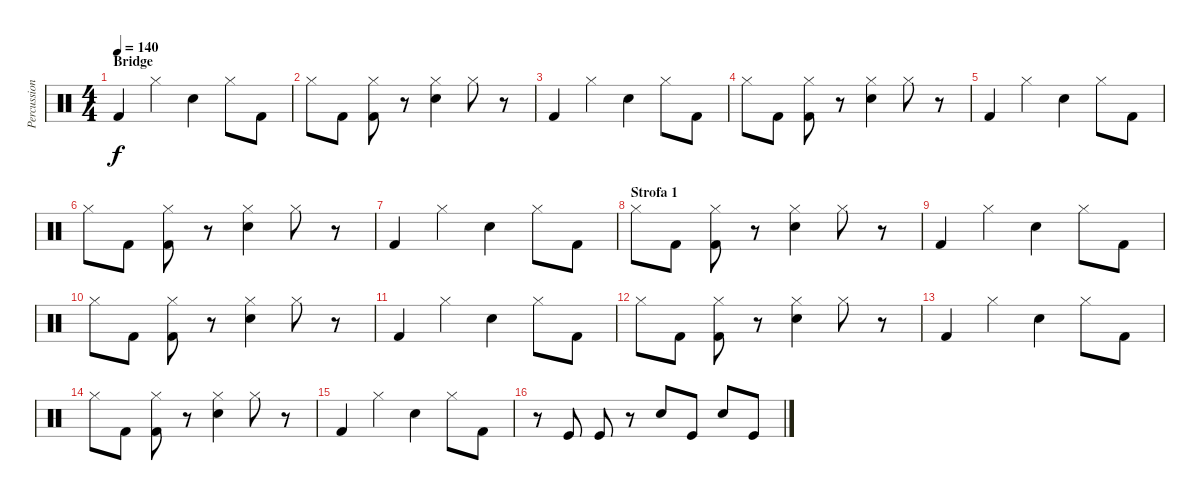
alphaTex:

\track ("Percussion" "Percussion") {instrument percussion}
\staff {score}
\articulation defaults
\ts (4 4)
\section ("" "Bridge")
\tempo 140
\clef neutral
\ks c "Kick (hit) 2".4{dy f} "Hi-Hat (closed)".4 "Snare (hit) 2".4 "Hi-Hat (closed)".8 "Kick (hit) 2".8
|
"Hi-Hat (closed)".8 "Kick (hit) 2".8 ("Kick (hit) 2" "Hi-Hat (closed)").8 r.8 ("Snare (hit) 2" "Hi-Hat (closed)").4 "Hi-Hat (closed)".8 r.8 |
"Kick (hit) 2".4 "Hi-Hat (closed)".4 "Snare (hit) 2".4 "Hi-Hat (closed)".8 "Kick (hit) 2".8 |
"Hi-Hat (closed)".8 "Kick (hit) 2".8 ("Kick (hit) 2" "Hi-Hat (closed)").8 r.8 ("Snare (hit) 2" "Hi-Hat (closed)").4 "Hi-Hat (closed)".8 r.8 |
"Kick (hit) 2".4 "Hi-Hat (closed)".4 "Snare (hit) 2".4 "Hi-Hat (closed)".8 "Kick (hit) 2".8 |
"Hi-Hat (closed)".8 "Kick (hit) 2".8 ("Kick (hit) 2" "Hi-Hat (closed)").8 r.8 ("Snare (hit) 2" "Hi-Hat (closed)").4 "Hi-Hat (closed)".8 r.8 |
"Kick (hit) 2".4 "Hi-Hat (closed)".4 "Snare (hit) 2".4 "Hi-Hat (closed)".8 "Kick (hit) 2".8 |
\section ("" "Strofa 1")
"Hi-Hat (closed)".8 "Kick (hit) 2".8 ("Kick (hit) 2" "Hi-Hat (closed)").8 r.8 ("Snare (hit) 2" "Hi-Hat (closed)").4 "Hi-Hat (closed)".8 r.8 |
"Kick (hit) 2".4 "Hi-Hat (closed)".4 "Snare (hit) 2".4 "Hi-Hat (closed)".8 "Kick (hit) 2".8 |
"Hi-Hat (closed)".8 "Kick (hit) 2".8 ("Kick (hit) 2" "Hi-Hat (closed)").8 r.8 ("Snare (hit) 2" "Hi-Hat (closed)").4 "Hi-Hat (closed)".8 r.8 |
"Kick (hit) 2".4 "Hi-Hat (closed)".4 "Snare (hit) 2".4 "Hi-Hat (closed)".8 "Kick (hit) 2".8 |
"Hi-Hat (closed)".8 "Kick (hit) 2".8 ("Kick (hit) 2" "Hi-Hat (closed)").8 r.8 ("Snare (hit) 2" "Hi-Hat (closed)").4 "Hi-Hat (closed)".8 r.8 |
"Kick (hit) 2".4 "Hi-Hat (closed)".4 "Snare (hit) 2".4 "Hi-Hat (closed)".8 "Kick (hit) 2".8 |
"Hi-Hat (closed)".8 "Kick (hit) 2".8 ("Kick (hit) 2" "Hi-Hat (closed)").8 r.8 ("Snare (hit) 2" "Hi-Hat (closed)").4 "Hi-Hat (closed)".8 r.8 |
"Kick (hit) 2".4 "Hi-Hat (closed)".4 "Snare (hit) 2".4 "Hi-Hat (closed)".8 "Kick (hit) 2".8 |
r.8 "Kick (hit)".8 "Kick (hit)".8 r.8 "Snare (hit) 2".8 "Kick (hit)".8 "Snare (hit) 2".8 "Kick (hit)".8
